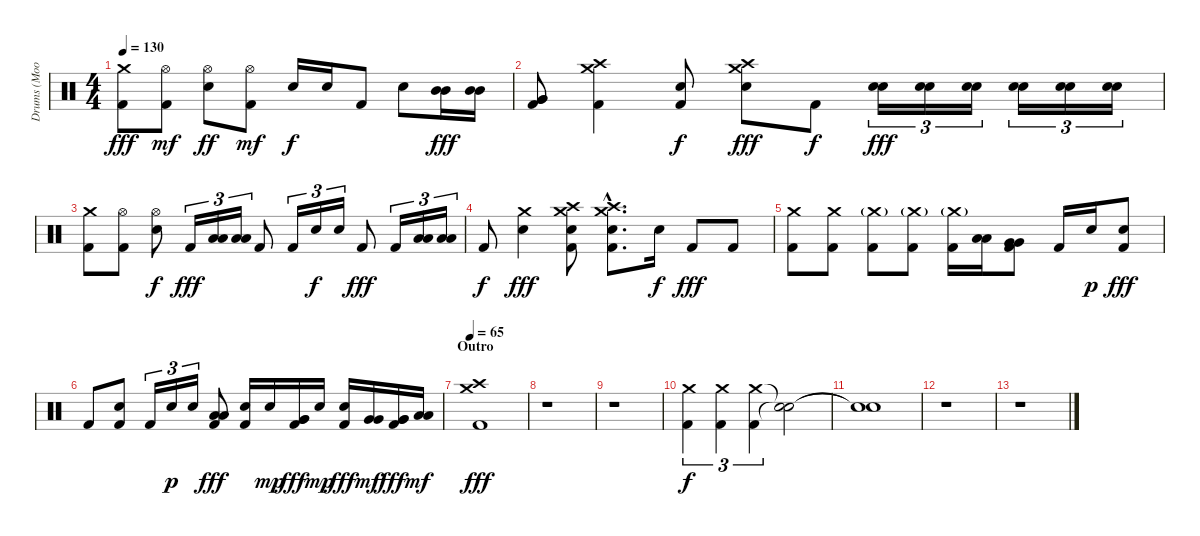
\track ("Drums (Moon (Who else?))" "Drums (Moo") {instrument percussion}
\staff {score}
\articulation defaults
\ts (4 4)
\tempo 130
\clef neutral
\ks c
("Crash medium (hit)" "Kick (hit) 2").8{dy fff} ("Hi-Hat (open)" "Kick (hit) 2").8{dy mf} ("Hi-Hat (open)" "Snare (hit) 2").8{dy ff} ("Hi-Hat (open)" "Kick (hit) 2").8{dy mf} "Snare (hit) 2".16{dy f} "Snare (hit) 2".16 "Kick (hit) 2".8 "Snare (hit) 2".8 ("Mid Tom (hit)" "Mid Tom (hit)").16{dy fff} ("Mid Tom (hit)" "Mid Tom (hit)").16 |
("Very Low Tom (hit)" "Very Low Tom (hit)" "Kick (hit) 2").8 ("Crash medium (hit)" "Crash high (hit)" "Kick (hit) 2").4 ("Snare (hit) 2" "Kick (hit) 2").8{dy f} ("Crash medium (hit)" "Crash high (hit)" "Snare (hit) 2").8{dy fff} "Kick (hit) 2".8{dy f} ("Snare (hit) 2" "Snare (hit) 2").16{tu (3 2) bd 480 dy fff} ("Snare (hit) 2" "Snare (hit) 2").16{tu (3 2) bu 480} ("Snare (hit) 2" "Snare (hit) 2").16{tu (3 2) bd 480} ("Snare (hit) 2" "Snare (hit) 2").16{tu (3 2) bu 480} ("Snare (hit) 2" "Snare (hit) 2").16{tu (3 2) bd 480} ("Snare (hit) 2" "Snare (hit) 2").16{tu (3 2) bu 480} |
("Crash medium (hit)" "Kick (hit) 2").8 ("Hi-Hat (open)" "Kick (hit) 2").8 ("Hi-Hat (open)" "Snare (hit) 2").8{dy f} "Kick (hit) 2".16{tu (3 2) dy fff} ("Low Tom (hit)" "Low Tom (hit)").16{tu (3 2)} ("Low Tom (hit)" "Low Tom (hit)").16{tu (3 2)} "Kick (hit) 2".8 "Kick (hit) 2".16{tu (3 2)} "Snare (hit) 2".16{tu (3 2) dy f} "Snare (hit) 2".16{tu (3 2)} "Kick (hit) 2".8{dy fff} "Kick (hit) 2".16{tu (3 2)} ("Low Floor Tom (hit)" "Low Floor Tom (hit)").16{tu (3 2)} ("Low Floor Tom (hit)" "Low Floor Tom (hit)").16{tu (3 2)} |
"Kick (hit) 2".8{dy f} ("Crash medium (hit)" "Snare (hit) 2").4{dy fff} ("Crash medium (hit)" "Crash high (hit)" "Snare (hit) 2" "Kick (hit) 2").8 ("Crash medium (hit)"{hac} "Crash high (hit)"{hac} "Snare (hit) 2"{hac} "Kick (hit) 2"{hac}).8{d} "Snare (hit) 2".16{dy f} "Kick (hit) 2".8{dy fff} "Kick (hit) 2".8 |
("Crash medium (hit)" "Kick (hit) 2").8 ("Crash medium (hit)" "Kick (hit) 2").8 ("Crash medium (hit)"{g} "Kick (hit) 2").8 ("Crash medium (hit)"{g} "Kick (hit) 2").8 ("Crash medium (hit)"{g} "Kick (hit) 2").16 ("Low Tom (hit)" "Low Tom (hit)").16 ("Very Low Tom (hit)" "Very Low Tom (hit)" "Kick (hit) 2").8 "Kick (hit) 2".16 "Snare (hit) 2".16{dy p} ("Snare (hit) 2" "Kick (hit) 2").8{dy fff} |
"Kick (hit) 2".8 ("Snare (hit) 2" "Kick (hit) 2").8 "Kick (hit) 2".16{tu (3 2)} "Snare (hit) 2".16{tu (3 2) dy p} "Snare (hit) 2".16{tu (3 2)} ("Low Floor Tom (hit)" "Low Floor Tom (hit)" "Kick (hit) 2").8{dy fff} ("Snare (hit) 2" "Kick (hit) 2").16 "Snare (hit) 2".16{dy mp} ("Very Low Tom (hit)" "Very Low Tom (hit)" "Kick (hit) 2").16{dy fff} "Snare (hit) 2".16{dy mp} ("Snare (hit) 2" "Kick (hit) 2").16{dy fff} ("Very Low Tom (hit)" "Very Low Tom (hit)").16{dy mf} ("Very Low Tom (hit)" "Very Low Tom (hit)" "Kick (hit) 2").16{dy fff} ("Low Floor Tom (hit)" "Low Floor Tom (hit)").16{dy mf} |
\section ("" "Outro")
\tempo 65
("Crash medium (hit)" "Crash high (hit)" "Kick (hit) 2").1{dy fff} |
r.1 |
r.1 |
("Crash medium (hit)" "Kick (hit) 2").4{tu (3 2) dy f} ("Crash medium (hit)" "Kick (hit) 2").4{tu (3 2)} ("Crash medium (hit)" "Kick (hit) 2").4{tu (3 2)} ("Snare (hit)"{t} "Snare (hit)"{t}).2 |
("Snare (hit)"{t} "Snare (hit)"{t}).1 |
r.1 |
r.1
